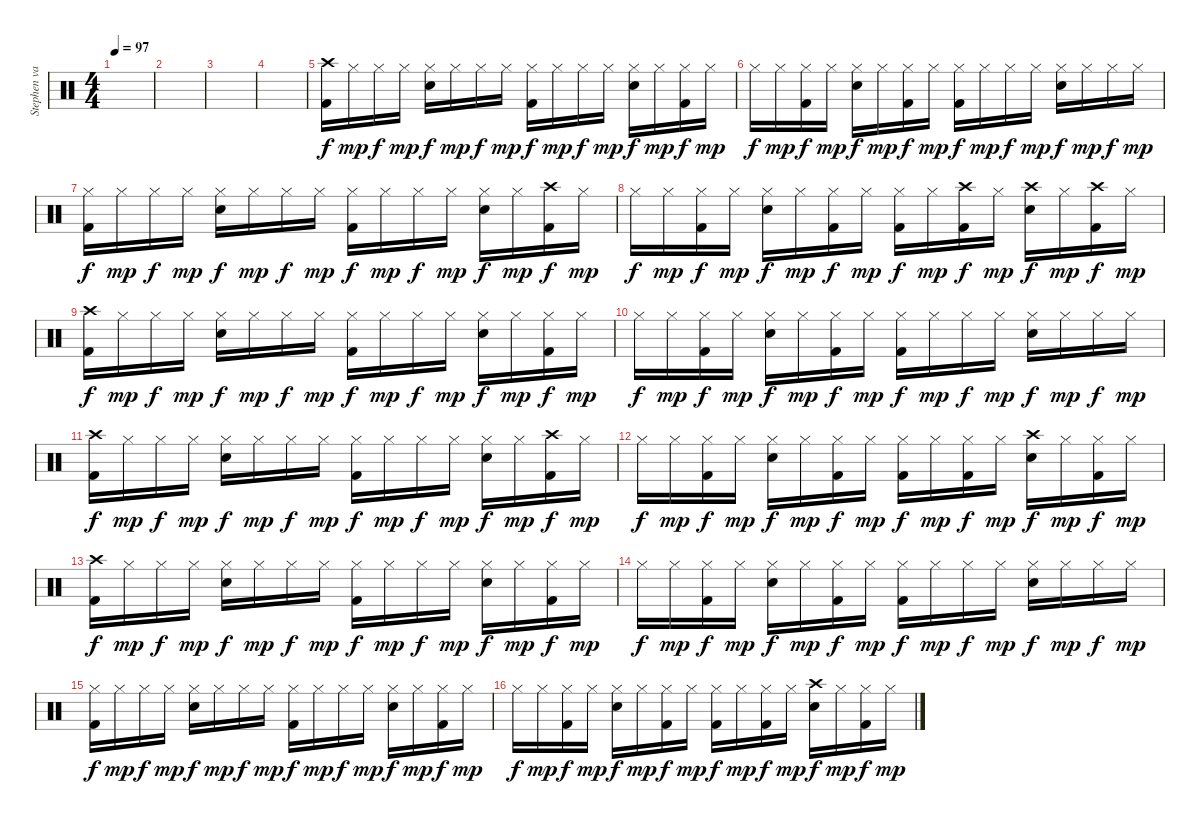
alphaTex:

\track ("Stephen van Haestregt (Drums)" "Stephen va") {instrument percussion}
\staff {score}
\articulation defaults
\ts (4 4)
\tempo 97
\clef neutral
\ks c
|
|
|
|
("Crash high (hit)" "Kick (hit) 2").16 "Hi-Hat (closed)".16{dy mp} "Hi-Hat (closed)".16{dy f} "Hi-Hat (closed)".16{dy mp} ("Hi-Hat (closed)" "Electric Snare (hit)").16{dy f} "Hi-Hat (closed)".16{dy mp} "Hi-Hat (closed)".16{dy f} "Hi-Hat (closed)".16{dy mp} ("Hi-Hat (closed)" "Kick (hit) 2").16{dy f} "Hi-Hat (closed)".16{dy mp} "Hi-Hat (closed)".16{dy f} "Hi-Hat (closed)".16{dy mp} ("Hi-Hat (closed)" "Electric Snare (hit)").16{dy f} "Hi-Hat (closed)".16{dy mp} ("Hi-Hat (closed)" "Kick (hit) 2").16{dy f} "Hi-Hat (closed)".16{dy mp} |
"Hi-Hat (closed)".16{dy f} "Hi-Hat (closed)".16{dy mp} ("Hi-Hat (closed)" "Kick (hit) 2").16{dy f} "Hi-Hat (closed)".16{dy mp} ("Hi-Hat (closed)" "Electric Snare (hit)").16{dy f} "Hi-Hat (closed)".16{dy mp} ("Hi-Hat (closed)" "Kick (hit) 2").16{dy f} "Hi-Hat (closed)".16{dy mp} ("Hi-Hat (closed)" "Kick (hit) 2").16{dy f} "Hi-Hat (closed)".16{dy mp} "Hi-Hat (closed)".16{dy f} "Hi-Hat (closed)".16{dy mp} ("Hi-Hat (closed)" "Electric Snare (hit)").16{dy f} "Hi-Hat (closed)".16{dy mp} "Hi-Hat (closed)".16{dy f} "Hi-Hat (closed)".16{dy mp} |
("Hi-Hat (closed)" "Kick (hit) 2").16{dy f} "Hi-Hat (closed)".16{dy mp} "Hi-Hat (closed)".16{dy f} "Hi-Hat (closed)".16{dy mp} ("Hi-Hat (closed)" "Electric Snare (hit)").16{dy f} "Hi-Hat (closed)".16{dy mp} "Hi-Hat (closed)".16{dy f} "Hi-Hat (closed)".16{dy mp} ("Hi-Hat (closed)" "Kick (hit) 2").16{dy f} "Hi-Hat (closed)".16{dy mp} "Hi-Hat (closed)".16{dy f} "Hi-Hat (closed)".16{dy mp} ("Hi-Hat (closed)" "Electric Snare (hit)").16{dy f} "Hi-Hat (closed)".16{dy mp} ("Crash high (hit)" "Kick (hit) 2").16{dy f} "Hi-Hat (closed)".16{dy mp} |
"Hi-Hat (closed)".16{dy f} "Hi-Hat (closed)".16{dy mp} ("Hi-Hat (closed)" "Kick (hit) 2").16{dy f} "Hi-Hat (closed)".16{dy mp} ("Hi-Hat (closed)" "Electric Snare (hit)").16{dy f} "Hi-Hat (closed)".16{dy mp} ("Hi-Hat (closed)" "Kick (hit) 2").16{dy f} "Hi-Hat (closed)".16{dy mp} ("Hi-Hat (closed)" "Kick (hit) 2").16{dy f} "Hi-Hat (closed)".16{dy mp} ("Crash high (hit)" "Kick (hit) 2").16{dy f} "Hi-Hat (closed)".16{dy mp} ("Crash high (hit)" "Electric Snare (hit)").16{dy f} "Hi-Hat (closed)".16{dy mp} ("Crash high (hit)" "Kick (hit) 2").16{dy f} "Hi-Hat (closed)".16{dy mp} |
("Crash high (hit)" "Kick (hit) 2").16{dy f} "Hi-Hat (closed)".16{dy mp} "Hi-Hat (closed)".16{dy f} "Hi-Hat (closed)".16{dy mp} ("Hi-Hat (closed)" "Electric Snare (hit)").16{dy f} "Hi-Hat (closed)".16{dy mp} "Hi-Hat (closed)".16{dy f} "Hi-Hat (closed)".16{dy mp} ("Hi-Hat (closed)" "Kick (hit) 2").16{dy f} "Hi-Hat (closed)".16{dy mp} "Hi-Hat (closed)".16{dy f} "Hi-Hat (closed)".16{dy mp} ("Hi-Hat (closed)" "Electric Snare (hit)").16{dy f} "Hi-Hat (closed)".16{dy mp} ("Hi-Hat (closed)" "Kick (hit) 2").16{dy f} "Hi-Hat (closed)".16{dy mp} |
"Hi-Hat (closed)".16{dy f} "Hi-Hat (closed)".16{dy mp} ("Hi-Hat (closed)" "Kick (hit) 2").16{dy f} "Hi-Hat (closed)".16{dy mp} ("Hi-Hat (closed)" "Electric Snare (hit)").16{dy f} "Hi-Hat (closed)".16{dy mp} ("Hi-Hat (closed)" "Kick (hit) 2").16{dy f} "Hi-Hat (closed)".16{dy mp} ("Hi-Hat (closed)" "Kick (hit) 2").16{dy f} "Hi-Hat (closed)".16{dy mp} "Hi-Hat (closed)".16{dy f} "Hi-Hat (closed)".16{dy mp} ("Hi-Hat (closed)" "Electric Snare (hit)").16{dy f} "Hi-Hat (closed)".16{dy mp} "Hi-Hat (closed)".16{dy f} "Hi-Hat (closed)".16{dy mp} |
("Crash high (hit)" "Kick (hit) 2").16{dy f} "Hi-Hat (closed)".16{dy mp} "Hi-Hat (closed)".16{dy f} "Hi-Hat (closed)".16{dy mp} ("Hi-Hat (closed)" "Electric Snare (hit)").16{dy f} "Hi-Hat (closed)".16{dy mp} "Hi-Hat (closed)".16{dy f} "Hi-Hat (closed)".16{dy mp} ("Hi-Hat (closed)" "Kick (hit) 2").16{dy f} "Hi-Hat (closed)".16{dy mp} "Hi-Hat (closed)".16{dy f} "Hi-Hat (closed)".16{dy mp} ("Hi-Hat (closed)" "Electric Snare (hit)").16{dy f} "Hi-Hat (closed)".16{dy mp} ("Crash high (hit)" "Kick (hit) 2").16{dy f} "Hi-Hat (closed)".16{dy mp} |
"Hi-Hat (closed)".16{dy f} "Hi-Hat (closed)".16{dy mp} ("Hi-Hat (closed)" "Kick (hit) 2").16{dy f} "Hi-Hat (closed)".16{dy mp} ("Hi-Hat (closed)" "Electric Snare (hit)").16{dy f} "Hi-Hat (closed)".16{dy mp} ("Hi-Hat (closed)" "Kick (hit) 2").16{dy f} "Hi-Hat (closed)".16{dy mp} ("Hi-Hat (closed)" "Kick (hit) 2").16{dy f} "Hi-Hat (closed)".16{dy mp} ("Hi-Hat (closed)" "Kick (hit) 2").16{dy f} "Hi-Hat (closed)".16{dy mp} ("Crash high (hit)" "Electric Snare (hit)").16{dy f} "Hi-Hat (closed)".16{dy mp} ("Hi-Hat (closed)" "Kick (hit) 2").16{dy f} "Hi-Hat (closed)".16{dy mp} |
("Crash high (hit)" "Kick (hit) 2").16{dy f} "Hi-Hat (closed)".16{dy mp} "Hi-Hat (closed)".16{dy f} "Hi-Hat (closed)".16{dy mp} ("Hi-Hat (closed)" "Electric Snare (hit)").16{dy f} "Hi-Hat (closed)".16{dy mp} "Hi-Hat (closed)".16{dy f} "Hi-Hat (closed)".16{dy mp} ("Hi-Hat (closed)" "Kick (hit) 2").16{dy f} "Hi-Hat (closed)".16{dy mp} "Hi-Hat (closed)".16{dy f} "Hi-Hat (closed)".16{dy mp} ("Hi-Hat (closed)" "Electric Snare (hit)").16{dy f} "Hi-Hat (closed)".16{dy mp} ("Hi-Hat (closed)" "Kick (hit) 2").16{dy f} "Hi-Hat (closed)".16{dy mp} |
"Hi-Hat (closed)".16{dy f} "Hi-Hat (closed)".16{dy mp} ("Hi-Hat (closed)" "Kick (hit) 2").16{dy f} "Hi-Hat (closed)".16{dy mp} ("Hi-Hat (closed)" "Electric Snare (hit)").16{dy f} "Hi-Hat (closed)".16{dy mp} ("Hi-Hat (closed)" "Kick (hit) 2").16{dy f} "Hi-Hat (closed)".16{dy mp} ("Hi-Hat (closed)" "Kick (hit) 2").16{dy f} "Hi-Hat (closed)".16{dy mp} "Hi-Hat (closed)".16{dy f} "Hi-Hat (closed)".16{dy mp} ("Hi-Hat (closed)" "Electric Snare (hit)").16{dy f} "Hi-Hat (closed)".16{dy mp} "Hi-Hat (closed)".16{dy f} "Hi-Hat (closed)".16{dy mp} |
("Hi-Hat (closed)" "Kick (hit) 2").16{dy f} "Hi-Hat (closed)".16{dy mp} "Hi-Hat (closed)".16{dy f} "Hi-Hat (closed)".16{dy mp} ("Hi-Hat (closed)" "Electric Snare (hit)").16{dy f} "Hi-Hat (closed)".16{dy mp} "Hi-Hat (closed)".16{dy f} "Hi-Hat (closed)".16{dy mp} ("Hi-Hat (closed)" "Kick (hit) 2").16{dy f} "Hi-Hat (closed)".16{dy mp} "Hi-Hat (closed)".16{dy f} "Hi-Hat (closed)".16{dy mp} ("Hi-Hat (closed)" "Electric Snare (hit)").16{dy f} "Hi-Hat (closed)".16{dy mp} ("Hi-Hat (closed)" "Kick (hit) 2").16{dy f} "Hi-Hat (closed)".16{dy mp} |
"Hi-Hat (closed)".16{dy f} "Hi-Hat (closed)".16{dy mp} ("Hi-Hat (closed)" "Kick (hit) 2").16{dy f} "Hi-Hat (closed)".16{dy mp} ("Hi-Hat (closed)" "Electric Snare (hit)").16{dy f} "Hi-Hat (closed)".16{dy mp} ("Hi-Hat (closed)" "Kick (hit) 2").16{dy f} "Hi-Hat (closed)".16{dy mp} ("Hi-Hat (closed)" "Kick (hit) 2").16{dy f} "Hi-Hat (closed)".16{dy mp} ("Hi-Hat (closed)" "Kick (hit) 2").16{dy f} "Hi-Hat (closed)".16{dy mp} ("Crash high (hit)" "Electric Snare (hit)").16{dy f} "Hi-Hat (closed)".16{dy mp} ("Hi-Hat (closed)" "Kick (hit) 2").16{dy f} "Hi-Hat (closed)".16{dy mp}
